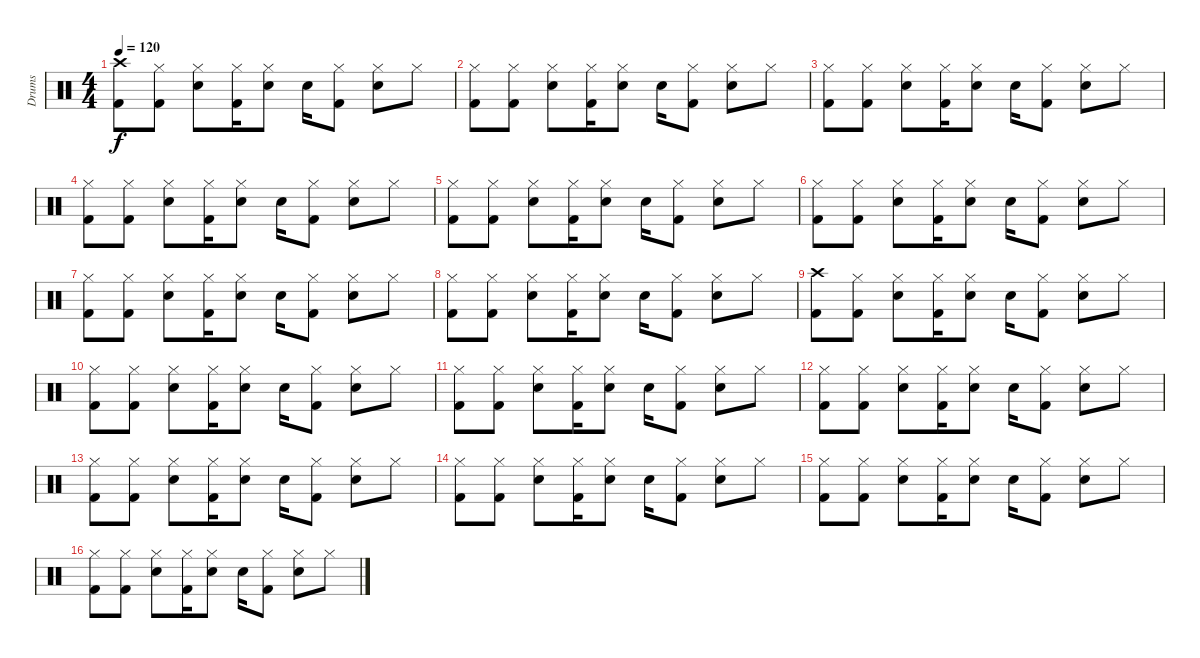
\track ("Drums" "Drums") {instrument percussion}
\staff {score}
\articulation defaults
\ts (4 4)
\tempo 120
\clef neutral
\ks c
("Crash high (hit)" "Kick (hit) 2").8{dy f} ("Hi-Hat (closed)" "Kick (hit) 2").8 ("Hi-Hat (closed)" "Electric Snare (hit)").8 ("Hi-Hat (closed)" "Kick (hit) 2").16 ("Hi-Hat (closed)" "Electric Snare (hit)").8 "Electric Snare (hit)".16 ("Hi-Hat (closed)" "Kick (hit) 2").8 ("Hi-Hat (closed)" "Electric Snare (hit)").8 "Hi-Hat (closed)".8 |
("Hi-Hat (closed)" "Kick (hit) 2").8 ("Hi-Hat (closed)" "Kick (hit) 2").8 ("Hi-Hat (closed)" "Electric Snare (hit)").8 ("Hi-Hat (closed)" "Kick (hit) 2").16 ("Hi-Hat (closed)" "Electric Snare (hit)").8 "Electric Snare (hit)".16 ("Hi-Hat (closed)" "Kick (hit) 2").8 ("Hi-Hat (closed)" "Electric Snare (hit)").8 "Hi-Hat (closed)".8 |
("Hi-Hat (closed)" "Kick (hit) 2").8 ("Hi-Hat (closed)" "Kick (hit) 2").8 ("Hi-Hat (closed)" "Electric Snare (hit)").8 ("Hi-Hat (closed)" "Kick (hit) 2").16 ("Hi-Hat (closed)" "Electric Snare (hit)").8 "Electric Snare (hit)".16 ("Hi-Hat (closed)" "Kick (hit) 2").8 ("Hi-Hat (closed)" "Electric Snare (hit)").8 "Hi-Hat (closed)".8 |
("Hi-Hat (closed)" "Kick (hit) 2").8 ("Hi-Hat (closed)" "Kick (hit) 2").8 ("Hi-Hat (closed)" "Electric Snare (hit)").8 ("Hi-Hat (closed)" "Kick (hit) 2").16 ("Hi-Hat (closed)" "Electric Snare (hit)").8 "Electric Snare (hit)".16 ("Hi-Hat (closed)" "Kick (hit) 2").8 ("Hi-Hat (closed)" "Electric Snare (hit)").8 "Hi-Hat (closed)".8 |
("Hi-Hat (closed)" "Kick (hit) 2").8 ("Hi-Hat (closed)" "Kick (hit) 2").8 ("Hi-Hat (closed)" "Electric Snare (hit)").8 ("Hi-Hat (closed)" "Kick (hit) 2").16 ("Hi-Hat (closed)" "Electric Snare (hit)").8 "Electric Snare (hit)".16 ("Hi-Hat (closed)" "Kick (hit) 2").8 ("Hi-Hat (closed)" "Electric Snare (hit)").8 "Hi-Hat (closed)".8 |
("Hi-Hat (closed)" "Kick (hit) 2").8 ("Hi-Hat (closed)" "Kick (hit) 2").8 ("Hi-Hat (closed)" "Electric Snare (hit)").8 ("Hi-Hat (closed)" "Kick (hit) 2").16 ("Hi-Hat (closed)" "Electric Snare (hit)").8 "Electric Snare (hit)".16 ("Hi-Hat (closed)" "Kick (hit) 2").8 ("Hi-Hat (closed)" "Electric Snare (hit)").8 "Hi-Hat (closed)".8 |
("Hi-Hat (closed)" "Kick (hit) 2").8 ("Hi-Hat (closed)" "Kick (hit) 2").8 ("Hi-Hat (closed)" "Electric Snare (hit)").8 ("Hi-Hat (closed)" "Kick (hit) 2").16 ("Hi-Hat (closed)" "Electric Snare (hit)").8 "Electric Snare (hit)".16 ("Hi-Hat (closed)" "Kick (hit) 2").8 ("Hi-Hat (closed)" "Electric Snare (hit)").8 "Hi-Hat (closed)".8 |
("Hi-Hat (closed)" "Kick (hit) 2").8 ("Hi-Hat (closed)" "Kick (hit) 2").8 ("Hi-Hat (closed)" "Electric Snare (hit)").8 ("Hi-Hat (closed)" "Kick (hit) 2").16 ("Hi-Hat (closed)" "Electric Snare (hit)").8 "Electric Snare (hit)".16 ("Hi-Hat (closed)" "Kick (hit) 2").8 ("Hi-Hat (closed)" "Electric Snare (hit)").8 "Hi-Hat (closed)".8 |
("Crash high (hit)" "Kick (hit) 2").8 ("Hi-Hat (closed)" "Kick (hit) 2").8 ("Hi-Hat (closed)" "Electric Snare (hit)").8 ("Hi-Hat (closed)" "Kick (hit) 2").16 ("Hi-Hat (closed)" "Electric Snare (hit)").8 "Electric Snare (hit)".16 ("Hi-Hat (closed)" "Kick (hit) 2").8 ("Hi-Hat (closed)" "Electric Snare (hit)").8 "Hi-Hat (closed)".8 |
("Hi-Hat (closed)" "Kick (hit) 2").8 ("Hi-Hat (closed)" "Kick (hit) 2").8 ("Hi-Hat (closed)" "Electric Snare (hit)").8 ("Hi-Hat (closed)" "Kick (hit) 2").16 ("Hi-Hat (closed)" "Electric Snare (hit)").8 "Electric Snare (hit)".16 ("Hi-Hat (closed)" "Kick (hit) 2").8 ("Hi-Hat (closed)" "Electric Snare (hit)").8 "Hi-Hat (closed)".8 |
("Hi-Hat (closed)" "Kick (hit) 2").8 ("Hi-Hat (closed)" "Kick (hit) 2").8 ("Hi-Hat (closed)" "Electric Snare (hit)").8 ("Hi-Hat (closed)" "Kick (hit) 2").16 ("Hi-Hat (closed)" "Electric Snare (hit)").8 "Electric Snare (hit)".16 ("Hi-Hat (closed)" "Kick (hit) 2").8 ("Hi-Hat (closed)" "Electric Snare (hit)").8 "Hi-Hat (closed)".8 |
("Hi-Hat (closed)" "Kick (hit) 2").8 ("Hi-Hat (closed)" "Kick (hit) 2").8 ("Hi-Hat (closed)" "Electric Snare (hit)").8 ("Hi-Hat (closed)" "Kick (hit) 2").16 ("Hi-Hat (closed)" "Electric Snare (hit)").8 "Electric Snare (hit)".16 ("Hi-Hat (closed)" "Kick (hit) 2").8 ("Hi-Hat (closed)" "Electric Snare (hit)").8 "Hi-Hat (closed)".8 |
("Hi-Hat (closed)" "Kick (hit) 2").8 ("Hi-Hat (closed)" "Kick (hit) 2").8 ("Hi-Hat (closed)" "Electric Snare (hit)").8 ("Hi-Hat (closed)" "Kick (hit) 2").16 ("Hi-Hat (closed)" "Electric Snare (hit)").8 "Electric Snare (hit)".16 ("Hi-Hat (closed)" "Kick (hit) 2").8 ("Hi-Hat (closed)" "Electric Snare (hit)").8 "Hi-Hat (closed)".8 |
("Hi-Hat (closed)" "Kick (hit) 2").8 ("Hi-Hat (closed)" "Kick (hit) 2").8 ("Hi-Hat (closed)" "Electric Snare (hit)").8 ("Hi-Hat (closed)" "Kick (hit) 2").16 ("Hi-Hat (closed)" "Electric Snare (hit)").8 "Electric Snare (hit)".16 ("Hi-Hat (closed)" "Kick (hit) 2").8 ("Hi-Hat (closed)" "Electric Snare (hit)").8 "Hi-Hat (closed)".8 |
("Hi-Hat (closed)" "Kick (hit) 2").8 ("Hi-Hat (closed)" "Kick (hit) 2").8 ("Hi-Hat (closed)" "Electric Snare (hit)").8 ("Hi-Hat (closed)" "Kick (hit) 2").16 ("Hi-Hat (closed)" "Electric Snare (hit)").8 "Electric Snare (hit)".16 ("Hi-Hat (closed)" "Kick (hit) 2").8 ("Hi-Hat (closed)" "Electric Snare (hit)").8 "Hi-Hat (closed)".8 |
("Hi-Hat (closed)" "Kick (hit) 2").8 ("Hi-Hat (closed)" "Kick (hit) 2").8 ("Hi-Hat (closed)" "Electric Snare (hit)").8 ("Hi-Hat (closed)" "Kick (hit) 2").16 ("Hi-Hat (closed)" "Electric Snare (hit)").8 "Electric Snare (hit)".16 ("Hi-Hat (closed)" "Kick (hit) 2").8 ("Hi-Hat (closed)" "Electric Snare (hit)").8 "Hi-Hat (closed)".8
